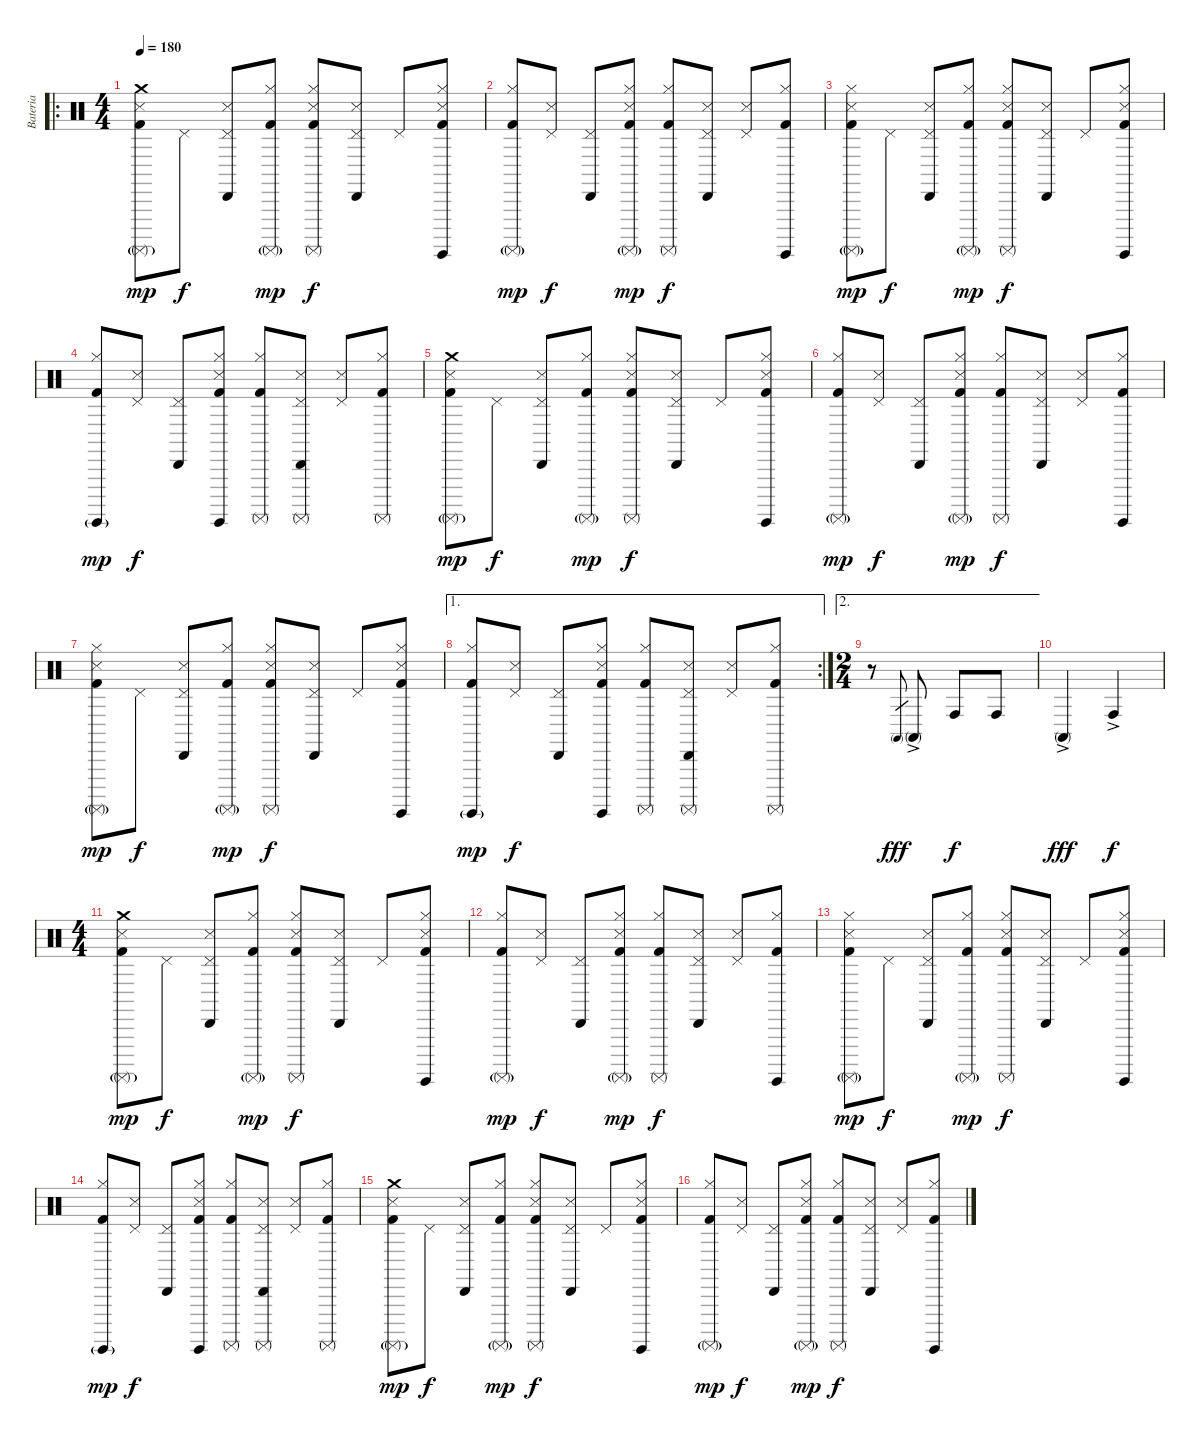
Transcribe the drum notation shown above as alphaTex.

\track ("Bateria" "Bateria") {instrument percussion}
\staff {score}
\articulation defaults
\ro
\ts (4 4)
\tempo 180
\clef neutral
\ks c
("Crash medium (hit)" "Snare (side stick) 3" "Surdo (mute)"{g} "Kick (hit) 2").8{dy mp volume 12} "Pedal Hi-Hat (hit)".8{dy f} ("Pedal Hi-Hat (hit)" "Cabasa (hit)" "Snare (side stick) 3").8 ("Hi-Hat (closed)" "Surdo (mute)"{g} "Kick (hit) 2").8{dy mp} ("Hi-Hat (closed)" "Snare (side stick) 3" "Surdo (mute)" "Kick (hit) 2").8{dy f} ("Pedal Hi-Hat (hit)" "Cabasa (hit)" "Snare (side stick) 3").8 "Pedal Hi-Hat (hit)".8 ("Hi-Hat (closed)" "Snare (side stick) 3" "Surdo (hit)" "Kick (hit) 2").8 |
("Hi-Hat (closed)" "Surdo (mute)"{g} "Kick (hit) 2").8{dy mp} ("Pedal Hi-Hat (hit)" "Snare (side stick) 3").8{dy f} ("Pedal Hi-Hat (hit)" "Cabasa (hit)").8 ("Hi-Hat (closed)" "Snare (side stick) 3" "Surdo (mute)"{g} "Kick (hit) 2").8{dy mp} ("Hi-Hat (closed)" "Surdo (mute)" "Kick (hit) 2").8{dy f} ("Pedal Hi-Hat (hit)" "Cabasa (hit)" "Snare (side stick) 3").8 ("Pedal Hi-Hat (hit)" "Snare (side stick) 3").8 ("Hi-Hat (closed)" "Surdo (hit)" "Kick (hit) 2").8 |
("Hi-Hat (closed)" "Snare (side stick) 3" "Surdo (mute)"{g} "Kick (hit) 2").8{dy mp} "Pedal Hi-Hat (hit)".8{dy f} ("Pedal Hi-Hat (hit)" "Cabasa (hit)" "Snare (side stick) 3").8 ("Hi-Hat (closed)" "Surdo (mute)"{g} "Kick (hit) 2").8{dy mp} ("Hi-Hat (closed)" "Snare (side stick) 3" "Surdo (mute)" "Kick (hit) 2").8{dy f} ("Pedal Hi-Hat (hit)" "Cabasa (hit)" "Snare (side stick) 3").8 "Pedal Hi-Hat (hit)".8 ("Hi-Hat (closed)" "Snare (side stick) 3" "Surdo (hit)" "Kick (hit) 2").8 |
("Hi-Hat (closed)" "Surdo (hit)"{g} "Kick (hit) 2").8{dy mp} ("Pedal Hi-Hat (hit)" "Snare (side stick) 3").8{dy f} ("Pedal Hi-Hat (hit)" "Cabasa (hit)").8 ("Hi-Hat (closed)" "Snare (side stick) 3" "Surdo (hit)" "Kick (hit) 2").8 ("Hi-Hat (closed)" "Surdo (mute)" "Kick (hit) 2").8 ("Pedal Hi-Hat (hit)" "Cabasa (hit)" "Snare (side stick) 3" "Surdo (mute)").8 ("Pedal Hi-Hat (hit)" "Snare (side stick) 3").8 ("Hi-Hat (closed)" "Surdo (mute)" "Kick (hit) 2").8 |
("Crash medium (hit)" "Snare (side stick) 3" "Surdo (mute)"{g} "Kick (hit) 2").8{dy mp} "Pedal Hi-Hat (hit)".8{dy f} ("Pedal Hi-Hat (hit)" "Cabasa (hit)" "Snare (side stick) 3").8 ("Hi-Hat (closed)" "Surdo (mute)"{g} "Kick (hit) 2").8{dy mp} ("Hi-Hat (closed)" "Snare (side stick) 3" "Surdo (mute)" "Kick (hit) 2").8{dy f} ("Pedal Hi-Hat (hit)" "Cabasa (hit)" "Snare (side stick) 3").8 "Pedal Hi-Hat (hit)".8 ("Hi-Hat (closed)" "Snare (side stick) 3" "Surdo (hit)" "Kick (hit) 2").8 |
("Hi-Hat (closed)" "Surdo (mute)"{g} "Kick (hit) 2").8{dy mp} ("Pedal Hi-Hat (hit)" "Snare (side stick) 3").8{dy f} ("Pedal Hi-Hat (hit)" "Cabasa (hit)").8 ("Hi-Hat (closed)" "Snare (side stick) 3" "Surdo (mute)"{g} "Kick (hit) 2").8{dy mp} ("Hi-Hat (closed)" "Surdo (mute)" "Kick (hit) 2").8{dy f} ("Pedal Hi-Hat (hit)" "Cabasa (hit)" "Snare (side stick) 3").8 ("Pedal Hi-Hat (hit)" "Snare (side stick) 3").8 ("Hi-Hat (closed)" "Surdo (hit)" "Kick (hit) 2").8 |
("Hi-Hat (closed)" "Snare (side stick) 3" "Surdo (mute)"{g} "Kick (hit) 2").8{dy mp} "Pedal Hi-Hat (hit)".8{dy f} ("Pedal Hi-Hat (hit)" "Cabasa (hit)" "Snare (side stick) 3").8 ("Hi-Hat (closed)" "Surdo (mute)"{g} "Kick (hit) 2").8{dy mp} ("Hi-Hat (closed)" "Snare (side stick) 3" "Surdo (mute)" "Kick (hit) 2").8{dy f} ("Pedal Hi-Hat (hit)" "Cabasa (hit)" "Snare (side stick) 3").8 "Pedal Hi-Hat (hit)".8 ("Hi-Hat (closed)" "Snare (side stick) 3" "Surdo (hit)" "Kick (hit) 2").8 |
\ae 1
\rc 2
("Hi-Hat (closed)" "Surdo (hit)"{g} "Kick (hit) 2").8{dy mp} ("Pedal Hi-Hat (hit)" "Snare (side stick) 3").8{dy f} ("Pedal Hi-Hat (hit)" "Cabasa (hit)").8 ("Hi-Hat (closed)" "Snare (side stick) 3" "Surdo (hit)" "Kick (hit) 2").8 ("Hi-Hat (closed)" "Surdo (mute)" "Kick (hit) 2").8 ("Pedal Hi-Hat (hit)" "Cabasa (hit)" "Snare (side stick) 3" "Surdo (mute)").8 ("Pedal Hi-Hat (hit)" "Snare (side stick) 3").8 ("Hi-Hat (closed)" "Surdo (mute)" "Kick (hit) 2").8 |
\ae 2
\ts (2 4)
r.8{volume 16} "Conga high (mute)".8{gr dy fff} "Conga high (mute)"{ac}.8 "Conga high (hit)".8{dy f} "Conga high (hit)".8 |
"Conga high (mute)"{ac}.4{dy fff} "Conga high (hit)"{ac}.4{dy f} |
\ts (4 4)
("Crash medium (hit)" "Snare (side stick) 3" "Surdo (mute)"{g} "Kick (hit) 2").8{dy mp volume 12} "Pedal Hi-Hat (hit)".8{dy f} ("Pedal Hi-Hat (hit)" "Cabasa (hit)" "Snare (side stick) 3").8 ("Hi-Hat (closed)" "Surdo (mute)"{g} "Kick (hit) 2").8{dy mp} ("Hi-Hat (closed)" "Snare (side stick) 3" "Surdo (mute)" "Kick (hit) 2").8{dy f} ("Pedal Hi-Hat (hit)" "Cabasa (hit)" "Snare (side stick) 3").8 "Pedal Hi-Hat (hit)".8 ("Hi-Hat (closed)" "Snare (side stick) 3" "Surdo (hit)" "Kick (hit) 2").8 |
("Hi-Hat (closed)" "Surdo (mute)"{g} "Kick (hit) 2").8{dy mp} ("Pedal Hi-Hat (hit)" "Snare (side stick) 3").8{dy f} ("Pedal Hi-Hat (hit)" "Cabasa (hit)").8 ("Hi-Hat (closed)" "Snare (side stick) 3" "Surdo (mute)"{g} "Kick (hit) 2").8{dy mp} ("Hi-Hat (closed)" "Surdo (mute)" "Kick (hit) 2").8{dy f} ("Pedal Hi-Hat (hit)" "Cabasa (hit)" "Snare (side stick) 3").8 ("Pedal Hi-Hat (hit)" "Snare (side stick) 3").8 ("Hi-Hat (closed)" "Surdo (hit)" "Kick (hit) 2").8 |
("Hi-Hat (closed)" "Snare (side stick) 3" "Surdo (mute)"{g} "Kick (hit) 2").8{dy mp} "Pedal Hi-Hat (hit)".8{dy f} ("Pedal Hi-Hat (hit)" "Cabasa (hit)" "Snare (side stick) 3").8 ("Hi-Hat (closed)" "Surdo (mute)"{g} "Kick (hit) 2").8{dy mp} ("Hi-Hat (closed)" "Snare (side stick) 3" "Surdo (mute)" "Kick (hit) 2").8{dy f} ("Pedal Hi-Hat (hit)" "Cabasa (hit)" "Snare (side stick) 3").8 "Pedal Hi-Hat (hit)".8 ("Hi-Hat (closed)" "Snare (side stick) 3" "Surdo (hit)" "Kick (hit) 2").8 |
("Hi-Hat (closed)" "Surdo (hit)"{g} "Kick (hit) 2").8{dy mp} ("Pedal Hi-Hat (hit)" "Snare (side stick) 3").8{dy f} ("Pedal Hi-Hat (hit)" "Cabasa (hit)").8 ("Hi-Hat (closed)" "Snare (side stick) 3" "Surdo (hit)" "Kick (hit) 2").8 ("Hi-Hat (closed)" "Surdo (mute)" "Kick (hit) 2").8 ("Pedal Hi-Hat (hit)" "Cabasa (hit)" "Snare (side stick) 3" "Surdo (mute)").8 ("Pedal Hi-Hat (hit)" "Snare (side stick) 3").8 ("Hi-Hat (closed)" "Surdo (mute)" "Kick (hit) 2").8 |
("Crash medium (hit)" "Snare (side stick) 3" "Surdo (mute)"{g} "Kick (hit) 2").8{dy mp} "Pedal Hi-Hat (hit)".8{dy f} ("Pedal Hi-Hat (hit)" "Cabasa (hit)" "Snare (side stick) 3").8 ("Hi-Hat (closed)" "Surdo (mute)"{g} "Kick (hit) 2").8{dy mp} ("Hi-Hat (closed)" "Snare (side stick) 3" "Surdo (mute)" "Kick (hit) 2").8{dy f} ("Pedal Hi-Hat (hit)" "Cabasa (hit)" "Snare (side stick) 3").8 "Pedal Hi-Hat (hit)".8 ("Hi-Hat (closed)" "Snare (side stick) 3" "Surdo (hit)" "Kick (hit) 2").8 |
("Hi-Hat (closed)" "Surdo (mute)"{g} "Kick (hit) 2").8{dy mp} ("Pedal Hi-Hat (hit)" "Snare (side stick) 3").8{dy f} ("Pedal Hi-Hat (hit)" "Cabasa (hit)").8 ("Hi-Hat (closed)" "Snare (side stick) 3" "Surdo (mute)"{g} "Kick (hit) 2").8{dy mp} ("Hi-Hat (closed)" "Surdo (mute)" "Kick (hit) 2").8{dy f} ("Pedal Hi-Hat (hit)" "Cabasa (hit)" "Snare (side stick) 3").8 ("Pedal Hi-Hat (hit)" "Snare (side stick) 3").8 ("Hi-Hat (closed)" "Surdo (hit)" "Kick (hit) 2").8
